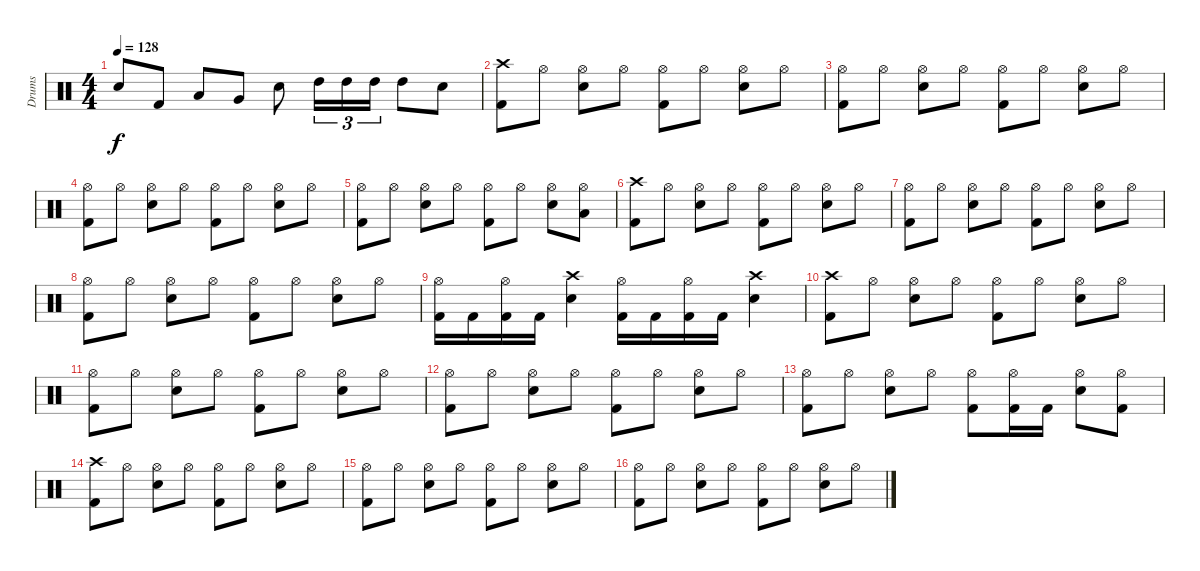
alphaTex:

\track ("Drums" "Drums") {instrument percussion}
\staff {score}
\articulation defaults
\ts (4 4)
\tempo 128
\clef neutral
\ks c "Snare (hit) 2".8{dy f} "Kick (hit) 2".8 "Low Tom (hit)".8 "Very Low Tom (hit)".8 "Snare (hit) 2".8 "High Tom (hit)".16{tu (3 2)} "High Tom (hit)".16{tu (3 2)} "High Tom (hit)".16{tu (3 2)} "High Tom (hit)".8 "Snare (hit) 2".8
|
("Crash high (hit)" "Kick (hit) 2").8 "Hi-Hat (open)".8 ("Hi-Hat (open)" "Snare (hit) 2").8 "Hi-Hat (open)".8 ("Hi-Hat (open)" "Kick (hit) 2").8 "Hi-Hat (open)".8 ("Hi-Hat (open)" "Snare (hit) 2").8 "Hi-Hat (open)".8 |
("Hi-Hat (open)" "Kick (hit) 2").8 "Hi-Hat (open)".8 ("Hi-Hat (open)" "Snare (hit) 2").8 "Hi-Hat (open)".8 ("Hi-Hat (open)" "Kick (hit) 2").8 "Hi-Hat (open)".8 ("Hi-Hat (open)" "Snare (hit) 2").8 "Hi-Hat (open)".8 |
("Hi-Hat (open)" "Kick (hit) 2").8 "Hi-Hat (open)".8 ("Hi-Hat (open)" "Snare (hit) 2").8 "Hi-Hat (open)".8 ("Hi-Hat (open)" "Kick (hit) 2").8 "Hi-Hat (open)".8 ("Hi-Hat (open)" "Snare (hit) 2").8 "Hi-Hat (open)".8 |
("Hi-Hat (open)" "Kick (hit) 2").8 "Hi-Hat (open)".8 ("Hi-Hat (open)" "Snare (hit) 2").8 "Hi-Hat (open)".8 ("Hi-Hat (open)" "Kick (hit) 2").8 "Hi-Hat (open)".8 ("Hi-Hat (open)" "Snare (hit) 2").8 ("Hi-Hat (open)" "Low Tom (hit)").8 |
("Crash high (hit)" "Kick (hit) 2").8 "Hi-Hat (open)".8 ("Hi-Hat (open)" "Snare (hit) 2").8 "Hi-Hat (open)".8 ("Hi-Hat (open)" "Kick (hit) 2").8 "Hi-Hat (open)".8 ("Hi-Hat (open)" "Snare (hit) 2").8 "Hi-Hat (open)".8 |
("Hi-Hat (open)" "Kick (hit) 2").8 "Hi-Hat (open)".8 ("Hi-Hat (open)" "Snare (hit) 2").8 "Hi-Hat (open)".8 ("Hi-Hat (open)" "Kick (hit) 2").8 "Hi-Hat (open)".8 ("Hi-Hat (open)" "Snare (hit) 2").8 "Hi-Hat (open)".8 |
("Hi-Hat (open)" "Kick (hit) 2").8 "Hi-Hat (open)".8 ("Hi-Hat (open)" "Snare (hit) 2").8 "Hi-Hat (open)".8 ("Hi-Hat (open)" "Kick (hit) 2").8 "Hi-Hat (open)".8 ("Hi-Hat (open)" "Snare (hit) 2").8 "Hi-Hat (open)".8 |
("Hi-Hat (open)" "Kick (hit) 2").16 "Kick (hit) 2".16 ("Hi-Hat (open)" "Kick (hit) 2").16 "Kick (hit) 2".16 ("Crash high (hit)" "Snare (hit) 2").4 ("Hi-Hat (open)" "Kick (hit) 2").16 "Kick (hit) 2".16 ("Hi-Hat (open)" "Kick (hit) 2").16 "Kick (hit) 2".16 ("Crash high (hit)" "Snare (hit) 2").4 |
("Crash high (hit)" "Kick (hit) 2").8 "Hi-Hat (open)".8 ("Hi-Hat (open)" "Snare (hit) 2").8 "Hi-Hat (open)".8 ("Hi-Hat (open)" "Kick (hit) 2").8 "Hi-Hat (open)".8 ("Hi-Hat (open)" "Snare (hit) 2").8 "Hi-Hat (open)".8 |
("Hi-Hat (open)" "Kick (hit) 2").8 "Hi-Hat (open)".8 ("Hi-Hat (open)" "Snare (hit) 2").8 "Hi-Hat (open)".8 ("Hi-Hat (open)" "Kick (hit) 2").8 "Hi-Hat (open)".8 ("Hi-Hat (open)" "Snare (hit) 2").8 "Hi-Hat (open)".8 |
("Hi-Hat (open)" "Kick (hit) 2").8 "Hi-Hat (open)".8 ("Hi-Hat (open)" "Snare (hit) 2").8 "Hi-Hat (open)".8 ("Hi-Hat (open)" "Kick (hit) 2").8 "Hi-Hat (open)".8 ("Hi-Hat (open)" "Snare (hit) 2").8 "Hi-Hat (open)".8 |
("Hi-Hat (open)" "Kick (hit) 2").8 "Hi-Hat (open)".8 ("Hi-Hat (open)" "Snare (hit) 2").8 "Hi-Hat (open)".8 ("Hi-Hat (open)" "Kick (hit) 2").8 ("Hi-Hat (open)" "Kick (hit) 2").16 "Kick (hit) 2".16 ("Hi-Hat (open)" "Snare (hit) 2").8 ("Hi-Hat (open)" "Kick (hit) 2").8 |
("Crash high (hit)" "Kick (hit) 2").8 "Hi-Hat (open)".8 ("Hi-Hat (open)" "Snare (hit) 2").8 "Hi-Hat (open)".8 ("Hi-Hat (open)" "Kick (hit) 2").8 "Hi-Hat (open)".8 ("Hi-Hat (open)" "Snare (hit) 2").8 "Hi-Hat (open)".8 |
("Hi-Hat (open)" "Kick (hit) 2").8 "Hi-Hat (open)".8 ("Hi-Hat (open)" "Snare (hit) 2").8 "Hi-Hat (open)".8 ("Hi-Hat (open)" "Kick (hit) 2").8 "Hi-Hat (open)".8 ("Hi-Hat (open)" "Snare (hit) 2").8 "Hi-Hat (open)".8 |
("Hi-Hat (open)" "Kick (hit) 2").8 "Hi-Hat (open)".8 ("Hi-Hat (open)" "Snare (hit) 2").8 "Hi-Hat (open)".8 ("Hi-Hat (open)" "Kick (hit) 2").8 "Hi-Hat (open)".8 ("Hi-Hat (open)" "Snare (hit) 2").8 "Hi-Hat (open)".8
